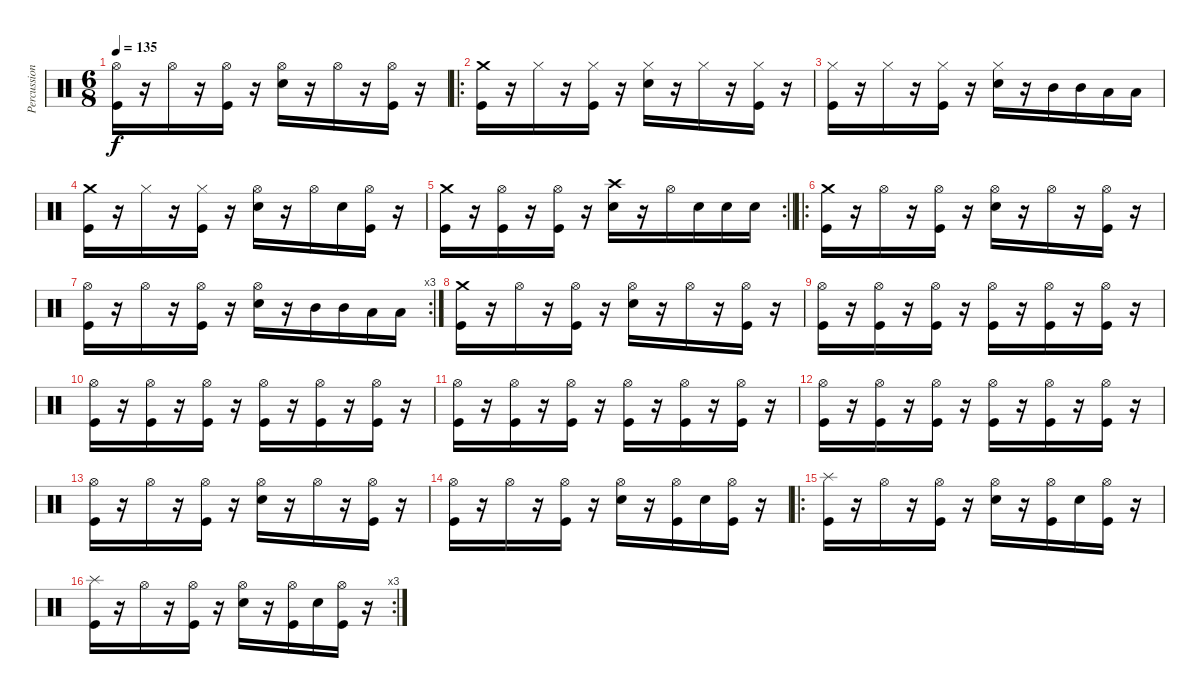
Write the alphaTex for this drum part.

\track ("Percussion" "Percussion") {instrument percussion}
\staff {score}
\articulation defaults
\ts (6 8)
\tempo 135
\clef neutral
\ks c
("Hi-Hat (open)" "Kick (hit)").16{dy f} r.16 "Hi-Hat (open)".16 r.16 ("Hi-Hat (open)" "Kick (hit)").16 r.16 ("Hi-Hat (open)" "Snare (hit) 2").16 r.16 "Hi-Hat (open)".16 r.16 ("Hi-Hat (open)" "Kick (hit)").16 r.16 |
\ro
("Crash medium (hit)" "Kick (hit)").16 r.16 "Hi-Hat (closed)".16 r.16 ("Hi-Hat (closed)" "Kick (hit)").16 r.16 ("Hi-Hat (closed)" "Snare (hit) 2").16 r.16 "Hi-Hat (closed)".16 r.16 ("Hi-Hat (closed)" "Kick (hit)").16 r.16 |
("Hi-Hat (closed)" "Kick (hit)").16 r.16 "Hi-Hat (closed)".16 r.16 ("Hi-Hat (closed)" "Kick (hit)").16 r.16 ("Hi-Hat (closed)" "Snare (hit) 2").16 r.16 "Mid Tom (hit)".16 "Mid Tom (hit)".16 "Low Tom (hit)".16 "Low Tom (hit)".16 |
("Crash medium (hit)" "Kick (hit)").16 r.16 "Hi-Hat (closed)".16 r.16 ("Hi-Hat (closed)" "Kick (hit)").16 r.16 ("Hi-Hat (open)" "Snare (hit) 2").16 r.16 "Hi-Hat (open)".16 "Snare (hit) 2".16 ("Hi-Hat (open)" "Kick (hit)").16 r.16 |
\rc 2
\barLineRight lightlight
("Crash medium (hit)" "Kick (hit)").16 r.16 ("Hi-Hat (open)" "Kick (hit)").16 r.16 ("Hi-Hat (open)" "Kick (hit)").16 r.16 ("Crash high (hit)" "Snare (hit) 2").16 r.16 "Hi-Hat (open)".16 "Snare (hit) 2".16 "Snare (hit) 2".16 "Snare (hit) 2".16 |
\ro
("Crash medium (hit)" "Kick (hit)").16 r.16 "Hi-Hat (open)".16 r.16 ("Hi-Hat (open)" "Kick (hit)").16 r.16 ("Hi-Hat (open)" "Snare (hit) 2").16 r.16 "Hi-Hat (open)".16 r.16 ("Hi-Hat (open)" "Kick (hit)").16 r.16 |
\rc 3
("Hi-Hat (open)" "Kick (hit)").16 r.16 "Hi-Hat (open)".16 r.16 ("Hi-Hat (open)" "Kick (hit)").16 r.16 ("Hi-Hat (open)" "Snare (hit) 2").16 r.16 "Mid Tom (hit)".16 "Mid Tom (hit)".16 "Low Tom (hit)".16 "Low Tom (hit)".16 |
("Crash medium (hit)" "Kick (hit)").16 r.16 "Hi-Hat (open)".16 r.16 ("Hi-Hat (open)" "Kick (hit)").16 r.16 ("Hi-Hat (open)" "Snare (hit) 2").16 r.16 "Hi-Hat (open)".16 r.16 ("Hi-Hat (open)" "Kick (hit)").16 r.16 |
("Hi-Hat (open)" "Kick (hit)").16{volume 3} r.16{volume 13} ("Hi-Hat (open)" "Kick (hit)").16 r.16 ("Hi-Hat (open)" "Kick (hit)").16 r.16 ("Hi-Hat (open)" "Kick (hit)").16 r.16 ("Hi-Hat (open)" "Kick (hit)").16 r.16 ("Hi-Hat (open)" "Kick (hit)").16 r.16 |
("Hi-Hat (open)" "Kick (hit)").16 r.16 ("Hi-Hat (open)" "Kick (hit)").16 r.16 ("Hi-Hat (open)" "Kick (hit)").16 r.16 ("Hi-Hat (open)" "Kick (hit)").16 r.16 ("Hi-Hat (open)" "Kick (hit)").16 r.16 ("Hi-Hat (open)" "Kick (hit)").16 r.16 |
("Hi-Hat (open)" "Kick (hit)").16 r.16 ("Hi-Hat (open)" "Kick (hit)").16 r.16 ("Hi-Hat (open)" "Kick (hit)").16 r.16 ("Hi-Hat (open)" "Kick (hit)").16 r.16 ("Hi-Hat (open)" "Kick (hit)").16 r.16 ("Hi-Hat (open)" "Kick (hit)").16 r.16 |
("Hi-Hat (open)" "Kick (hit)").16 r.16 ("Hi-Hat (open)" "Kick (hit)").16 r.16 ("Hi-Hat (open)" "Kick (hit)").16 r.16 ("Hi-Hat (open)" "Kick (hit)").16 r.16 ("Hi-Hat (open)" "Kick (hit)").16 r.16 ("Hi-Hat (open)" "Kick (hit)").16 r.16 |
("Hi-Hat (open)" "Kick (hit)").16 r.16 "Hi-Hat (open)".16 r.16 ("Hi-Hat (open)" "Kick (hit)").16 r.16 ("Hi-Hat (open)" "Snare (hit) 2").16 r.16 "Hi-Hat (open)".16 r.16 ("Hi-Hat (open)" "Kick (hit)").16 r.16 |
("Hi-Hat (open)" "Kick (hit)").16 r.16 "Hi-Hat (open)".16 r.16 ("Hi-Hat (open)" "Kick (hit)").16 r.16 ("Hi-Hat (open)" "Snare (hit) 2").16 r.16 ("Hi-Hat (open)" "Kick (hit)").16 "Snare (hit) 2".16 ("Hi-Hat (open)" "Kick (hit)").16 r.16 |
\ro
("Splash (hit)" "Kick (hit)").16 r.16 "Hi-Hat (open)".16 r.16 ("Hi-Hat (open)" "Kick (hit)").16 r.16 ("Hi-Hat (open)" "Snare (hit) 2").16 r.16 ("Hi-Hat (open)" "Kick (hit)").16 "Snare (hit) 2".16 ("Hi-Hat (open)" "Kick (hit)").16 r.16 |
\rc 3
("Splash (hit)" "Kick (hit)").16 r.16 "Hi-Hat (open)".16 r.16 ("Hi-Hat (open)" "Kick (hit)").16 r.16 ("Hi-Hat (open)" "Snare (hit) 2").16 r.16 ("Hi-Hat (open)" "Kick (hit)").16 "Snare (hit) 2".16 ("Hi-Hat (open)" "Kick (hit)").16 r.16
